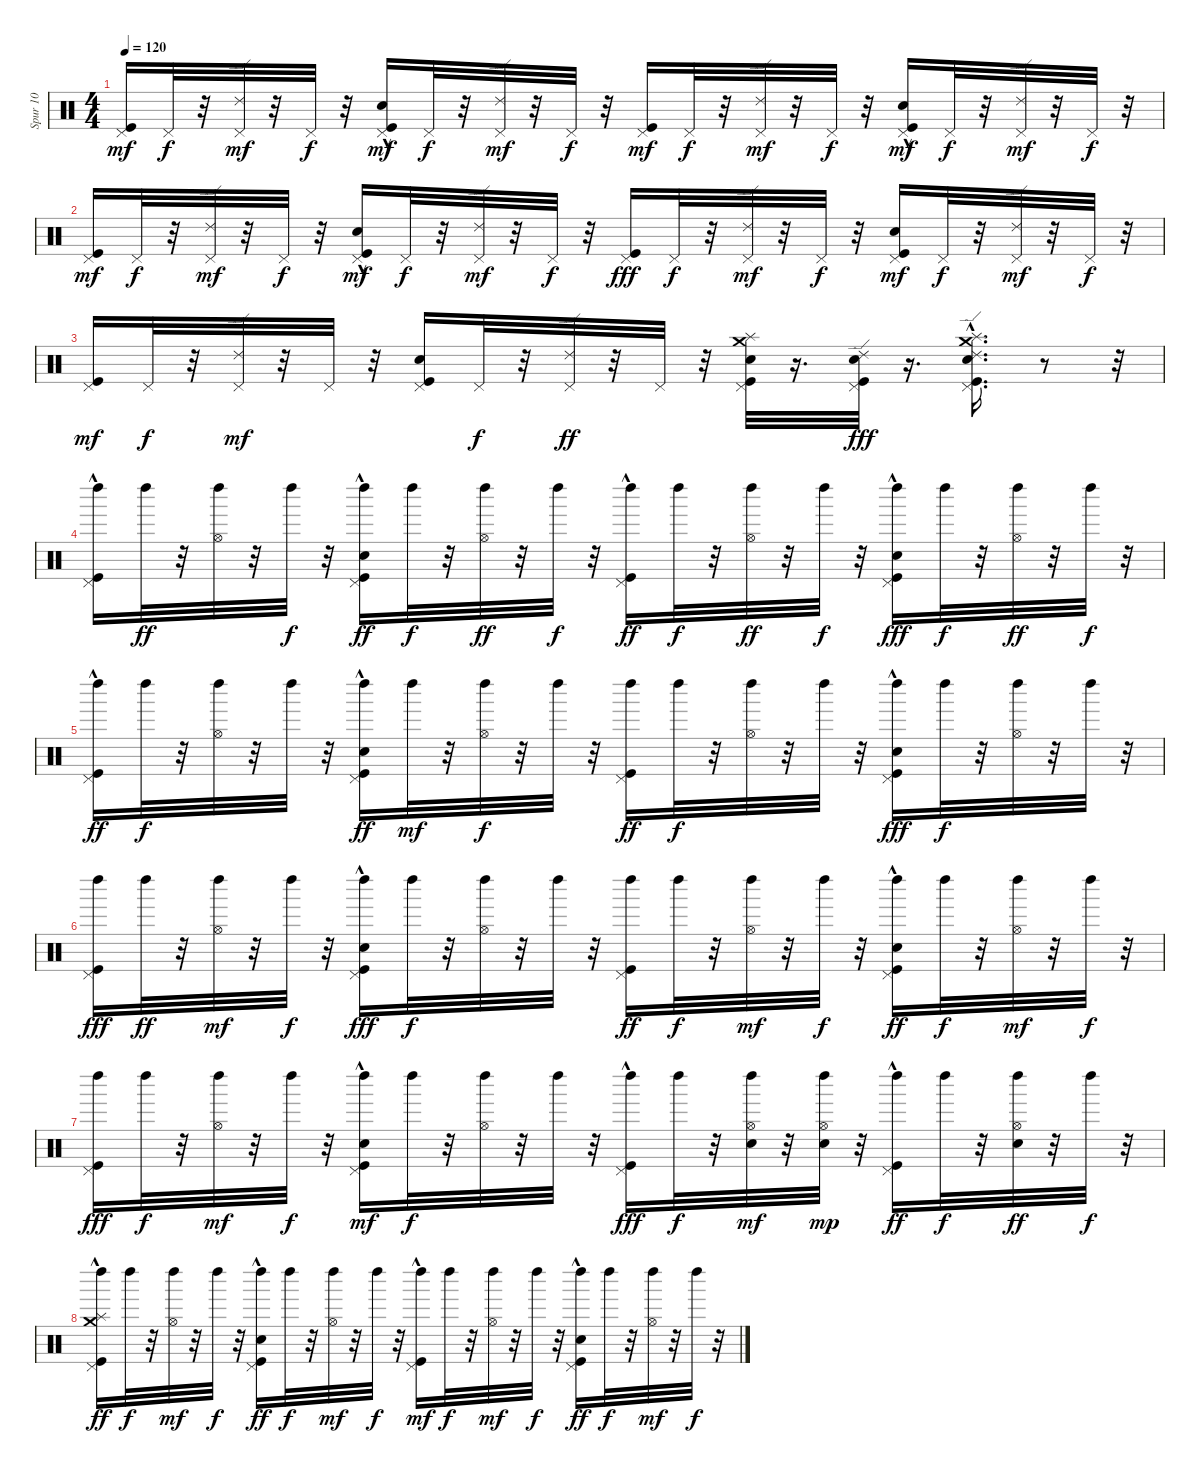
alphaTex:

\track ("Spur 10" "Spur 10") {instrument percussion}
\staff {score}
\articulation defaults
\ts (4 4)
\tempo 120
\clef neutral
\ks c
("Kick (hit)" "Pedal Hi-Hat (hit)").16{dy mf} "Pedal Hi-Hat (hit)".32{dy f} r.32 ("Ride (edge) 2" "Pedal Hi-Hat (hit)").32{dy mf} r.32 "Pedal Hi-Hat (hit)".32{dy f} r.32 ("Snare (hit) 2"{hac} "Kick (hit)" "Pedal Hi-Hat (hit)").16{dy mf} "Pedal Hi-Hat (hit)".32{dy f} r.32 ("Ride (edge) 2" "Pedal Hi-Hat (hit)").32{dy mf} r.32 "Pedal Hi-Hat (hit)".32{dy f} r.32 ("Kick (hit)" "Pedal Hi-Hat (hit)").16{dy mf} "Pedal Hi-Hat (hit)".32{dy f} r.32 ("Ride (edge) 2" "Pedal Hi-Hat (hit)").32{dy mf} r.32 "Pedal Hi-Hat (hit)".32{dy f} r.32 ("Snare (hit) 2"{hac} "Kick (hit)" "Pedal Hi-Hat (hit)").16{dy mf} "Pedal Hi-Hat (hit)".32{dy f} r.32 ("Ride (edge) 2" "Pedal Hi-Hat (hit)").32{dy mf} r.32 "Pedal Hi-Hat (hit)".32{dy f} r.32 |
("Kick (hit)" "Pedal Hi-Hat (hit)").16{dy mf} "Pedal Hi-Hat (hit)".32{dy f} r.32 ("Ride (edge) 2" "Pedal Hi-Hat (hit)").32{dy mf} r.32 "Pedal Hi-Hat (hit)".32{dy f} r.32 ("Snare (hit) 2"{hac} "Kick (hit)" "Pedal Hi-Hat (hit)").16{dy mf} "Pedal Hi-Hat (hit)".32{dy f} r.32 ("Ride (edge) 2" "Pedal Hi-Hat (hit)").32{dy mf} r.32 "Pedal Hi-Hat (hit)".32{dy f} r.32 ("Kick (hit)" "Pedal Hi-Hat (hit)").16{dy fff} "Pedal Hi-Hat (hit)".32{dy f} r.32 ("Ride (edge) 2" "Pedal Hi-Hat (hit)").32{dy mf} r.32 "Pedal Hi-Hat (hit)".32{dy f} r.32 ("Snare (hit) 2" "Kick (hit)" "Pedal Hi-Hat (hit)").16{dy mf} "Pedal Hi-Hat (hit)".32{dy f} r.32 ("Ride (edge) 2" "Pedal Hi-Hat (hit)").32{dy mf} r.32 "Pedal Hi-Hat (hit)".32{dy f} r.32 |
("Kick (hit)" "Pedal Hi-Hat (hit)").16{dy mf} "Pedal Hi-Hat (hit)".32{dy f} r.32 ("Ride (edge) 2" "Pedal Hi-Hat (hit)").32{dy mf} r.32 "Pedal Hi-Hat (hit)".32 r.32 ("Kick (hit)" "Snare (hit) 2" "Pedal Hi-Hat (hit)").16 "Pedal Hi-Hat (hit)".32{dy f} r.32 ("Ride (edge) 2" "Pedal Hi-Hat (hit)").32{dy ff} r.32 "Pedal Hi-Hat (hit)".32 r.32 ("Snare (hit) 2" "Kick (hit)" "Pedal Hi-Hat (hit)" "Crash medium (hit)" "Splash (hit)").32 r.16{d} ("Snare (hit) 2" "Kick (hit)" "Ride (edge) 2" "Pedal Hi-Hat (hit)").32{dy fff} r.16{d} ("Snare (hit) 2" "Kick (hit)"{hac} "Ride (edge) 2" "Pedal Hi-Hat (hit)" "Crash medium (hit)" "Splash (hit)").16{d} r.8 r.32 |
("Kick (hit)" "Pedal Hi-Hat (hit)"{hac} "Left Maraca (hit)").16 "Left Maraca (hit)".32{dy ff} r.32 ("Hi-Hat (open)" "Left Maraca (hit)").32 r.32 "Left Maraca (hit)".32{dy f} r.32 ("Snare (hit) 2" "Kick (hit)" "Pedal Hi-Hat (hit)"{hac} "Left Maraca (hit)").16{dy ff} "Left Maraca (hit)".32{dy f} r.32 ("Hi-Hat (open)" "Left Maraca (hit)").32{dy ff} r.32 "Left Maraca (hit)".32{dy f} r.32 ("Kick (hit)" "Pedal Hi-Hat (hit)"{hac} "Left Maraca (hit)").16{dy ff} "Left Maraca (hit)".32{dy f} r.32 ("Hi-Hat (open)" "Left Maraca (hit)").32{dy ff} r.32 "Left Maraca (hit)".32{dy f} r.32 ("Snare (hit) 2"{hac} "Kick (hit)"{hac} "Pedal Hi-Hat (hit)"{hac} "Left Maraca (hit)").16{dy fff} "Left Maraca (hit)".32{dy f} r.32 ("Hi-Hat (open)" "Left Maraca (hit)").32{dy ff} r.32 "Left Maraca (hit)".32{dy f} r.32 |
("Kick (hit)" "Pedal Hi-Hat (hit)"{hac} "Left Maraca (hit)").16{dy ff} "Left Maraca (hit)".32{dy f} r.32 ("Hi-Hat (open)" "Left Maraca (hit)").32 r.32 "Left Maraca (hit)".32 r.32 ("Snare (hit) 2"{hac} "Kick (hit)"{hac} "Pedal Hi-Hat (hit)" "Left Maraca (hit)").16{dy ff} "Left Maraca (hit)".32{dy mf} r.32 ("Hi-Hat (open)" "Left Maraca (hit)").32{dy f} r.32 "Left Maraca (hit)".32 r.32 ("Kick (hit)" "Pedal Hi-Hat (hit)" "Left Maraca (hit)").16{dy ff} "Left Maraca (hit)".32{dy f} r.32 ("Hi-Hat (open)" "Left Maraca (hit)").32 r.32 "Left Maraca (hit)".32 r.32 ("Snare (hit) 2" "Kick (hit)"{hac} "Pedal Hi-Hat (hit)"{hac} "Left Maraca (hit)").16{dy fff} "Left Maraca (hit)".32{dy f} r.32 ("Hi-Hat (open)" "Left Maraca (hit)").32 r.32 "Left Maraca (hit)".32 r.32 |
("Kick (hit)" "Pedal Hi-Hat (hit)" "Left Maraca (hit)").16{dy fff} "Left Maraca (hit)".32{dy ff} r.32 ("Hi-Hat (open)" "Left Maraca (hit)").32{dy mf} r.32 "Left Maraca (hit)".32{dy f} r.32 ("Snare (hit) 2"{hac} "Kick (hit)"{hac} "Pedal Hi-Hat (hit)"{hac} "Left Maraca (hit)").16{dy fff} "Left Maraca (hit)".32{dy f} r.32 ("Hi-Hat (open)" "Left Maraca (hit)").32 r.32 "Left Maraca (hit)".32 r.32 ("Kick (hit)" "Pedal Hi-Hat (hit)" "Left Maraca (hit)").16{dy ff} "Left Maraca (hit)".32{dy f} r.32 ("Hi-Hat (open)" "Left Maraca (hit)").32{dy mf} r.32 "Left Maraca (hit)".32{dy f} r.32 ("Kick (hit)" "Snare (hit) 2"{hac} "Pedal Hi-Hat (hit)" "Left Maraca (hit)").16{dy ff} "Left Maraca (hit)".32{dy f} r.32 ("Hi-Hat (open)" "Left Maraca (hit)").32{dy mf} r.32 "Left Maraca (hit)".32{dy f} r.32 |
("Kick (hit)" "Pedal Hi-Hat (hit)" "Left Maraca (hit)").16{dy fff} "Left Maraca (hit)".32{dy f} r.32 ("Hi-Hat (open)" "Left Maraca (hit)").32{dy mf} r.32 "Left Maraca (hit)".32{dy f} r.32 ("Snare (hit) 2" "Kick (hit)"{hac} "Pedal Hi-Hat (hit)" "Left Maraca (hit)").16{dy mf} "Left Maraca (hit)".32{dy f} r.32 ("Hi-Hat (open)" "Left Maraca (hit)").32 r.32 "Left Maraca (hit)".32 r.32 ("Kick (hit)"{hac} "Pedal Hi-Hat (hit)"{hac} "Left Maraca (hit)").16{dy fff} "Left Maraca (hit)".32{dy f} r.32 ("Snare (hit) 2" "Hi-Hat (open)" "Left Maraca (hit)").32{dy mf} r.32 ("Snare (hit) 2" "Hi-Hat (open)" "Left Maraca (hit)").32{dy mp} r.32 ("Kick (hit)"{hac} "Pedal Hi-Hat (hit)"{hac} "Left Maraca (hit)").16{dy ff} "Left Maraca (hit)".32{dy f} r.32 ("Snare (hit) 2" "Hi-Hat (open)" "Left Maraca (hit)").32{dy ff} r.32 "Left Maraca (hit)".32{dy f} r.32 |
("Kick (hit)" "Pedal Hi-Hat (hit)"{hac} "Left Maraca (hit)" "Crash medium (hit)" "Splash (hit)").16{dy ff} "Left Maraca (hit)".32{dy f} r.32 ("Hi-Hat (open)" "Left Maraca (hit)").32{dy mf} r.32 "Left Maraca (hit)".32{dy f} r.32 ("Kick (hit)"{hac} "Snare (hit) 2"{hac} "Pedal Hi-Hat (hit)" "Left Maraca (hit)").16{dy ff} "Left Maraca (hit)".32{dy f} r.32 ("Hi-Hat (open)" "Left Maraca (hit)").32{dy mf} r.32 "Left Maraca (hit)".32{dy f} r.32 ("Kick (hit)" "Pedal Hi-Hat (hit)"{hac} "Left Maraca (hit)").16{dy mf} "Left Maraca (hit)".32{dy f} r.32 ("Hi-Hat (open)" "Left Maraca (hit)").32{dy mf} r.32 "Left Maraca (hit)".32{dy f} r.32 ("Kick (hit)"{hac} "Snare (hit) 2" "Pedal Hi-Hat (hit)" "Left Maraca (hit)").16{dy ff} "Left Maraca (hit)".32{dy f} r.32 ("Hi-Hat (open)" "Left Maraca (hit)").32{dy mf} r.32 "Left Maraca (hit)".32{dy f} r.32
